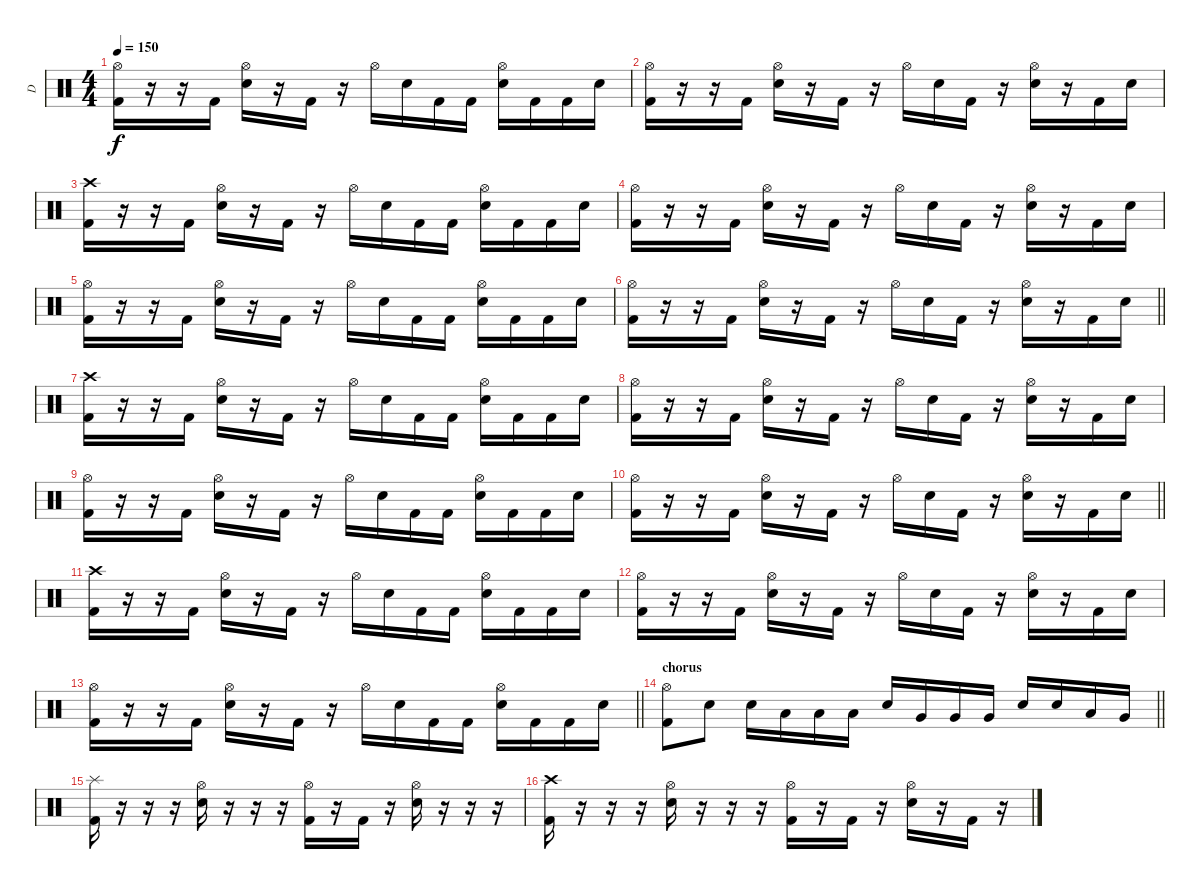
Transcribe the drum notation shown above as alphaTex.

\track ("D" "D") {instrument percussion}
\staff {score}
\articulation defaults
\ts (4 4)
\tempo 150
\clef neutral
\ks c
("Hi-Hat (open)" "Kick (hit) 2").16{dy f} r.16 r.16 "Kick (hit) 2".16 ("Hi-Hat (open)" "Electric Snare (hit)").16 r.16 "Kick (hit) 2".16 r.16 "Hi-Hat (open)".16 "Electric Snare (hit)".16 "Kick (hit) 2".16 "Kick (hit) 2".16 ("Hi-Hat (open)" "Electric Snare (hit)").16 "Kick (hit) 2".16 "Kick (hit) 2".16 "Electric Snare (hit)".16 |
("Hi-Hat (open)" "Kick (hit) 2").16 r.16 r.16 "Kick (hit) 2".16 ("Hi-Hat (open)" "Electric Snare (hit)").16 r.16 "Kick (hit) 2".16 r.16 "Hi-Hat (open)".16 "Electric Snare (hit)".16 "Kick (hit) 2".16 r.16 ("Hi-Hat (open)" "Electric Snare (hit)").16 r.16 "Kick (hit) 2".16 "Electric Snare (hit)".16 |
("Crash high (hit)" "Kick (hit) 2").16 r.16 r.16 "Kick (hit) 2".16 ("Hi-Hat (open)" "Electric Snare (hit)").16 r.16 "Kick (hit) 2".16 r.16 "Hi-Hat (open)".16 "Electric Snare (hit)".16 "Kick (hit) 2".16 "Kick (hit) 2".16 ("Hi-Hat (open)" "Electric Snare (hit)").16 "Kick (hit) 2".16 "Kick (hit) 2".16 "Electric Snare (hit)".16 |
("Hi-Hat (open)" "Kick (hit) 2").16 r.16 r.16 "Kick (hit) 2".16 ("Hi-Hat (open)" "Electric Snare (hit)").16 r.16 "Kick (hit) 2".16 r.16 "Hi-Hat (open)".16 "Electric Snare (hit)".16 "Kick (hit) 2".16 r.16 ("Hi-Hat (open)" "Electric Snare (hit)").16 r.16 "Kick (hit) 2".16 "Electric Snare (hit)".16 |
("Hi-Hat (open)" "Kick (hit) 2").16 r.16 r.16 "Kick (hit) 2".16 ("Hi-Hat (open)" "Electric Snare (hit)").16 r.16 "Kick (hit) 2".16 r.16 "Hi-Hat (open)".16 "Electric Snare (hit)".16 "Kick (hit) 2".16 "Kick (hit) 2".16 ("Hi-Hat (open)" "Electric Snare (hit)").16 "Kick (hit) 2".16 "Kick (hit) 2".16 "Electric Snare (hit)".16 |
\barLineRight lightlight
("Hi-Hat (open)" "Kick (hit) 2").16 r.16 r.16 "Kick (hit) 2".16 ("Hi-Hat (open)" "Electric Snare (hit)").16 r.16 "Kick (hit) 2".16 r.16 "Hi-Hat (open)".16 "Electric Snare (hit)".16 "Kick (hit) 2".16 r.16 ("Hi-Hat (open)" "Electric Snare (hit)").16 r.16 "Kick (hit) 2".16 "Electric Snare (hit)".16 |
("Crash high (hit)" "Kick (hit) 2").16 r.16 r.16 "Kick (hit) 2".16 ("Hi-Hat (open)" "Electric Snare (hit)").16 r.16 "Kick (hit) 2".16 r.16 "Hi-Hat (open)".16 "Electric Snare (hit)".16 "Kick (hit) 2".16 "Kick (hit) 2".16 ("Hi-Hat (open)" "Electric Snare (hit)").16 "Kick (hit) 2".16 "Kick (hit) 2".16 "Electric Snare (hit)".16 |
("Hi-Hat (open)" "Kick (hit) 2").16 r.16 r.16 "Kick (hit) 2".16 ("Hi-Hat (open)" "Electric Snare (hit)").16 r.16 "Kick (hit) 2".16 r.16 "Hi-Hat (open)".16 "Electric Snare (hit)".16 "Kick (hit) 2".16 r.16 ("Hi-Hat (open)" "Electric Snare (hit)").16 r.16 "Kick (hit) 2".16 "Electric Snare (hit)".16 |
("Hi-Hat (open)" "Kick (hit) 2").16 r.16 r.16 "Kick (hit) 2".16 ("Hi-Hat (open)" "Electric Snare (hit)").16 r.16 "Kick (hit) 2".16 r.16 "Hi-Hat (open)".16 "Electric Snare (hit)".16 "Kick (hit) 2".16 "Kick (hit) 2".16 ("Hi-Hat (open)" "Electric Snare (hit)").16 "Kick (hit) 2".16 "Kick (hit) 2".16 "Electric Snare (hit)".16 |
\barLineRight lightlight
("Hi-Hat (open)" "Kick (hit) 2").16 r.16 r.16 "Kick (hit) 2".16 ("Hi-Hat (open)" "Electric Snare (hit)").16 r.16 "Kick (hit) 2".16 r.16 "Hi-Hat (open)".16 "Electric Snare (hit)".16 "Kick (hit) 2".16 r.16 ("Hi-Hat (open)" "Electric Snare (hit)").16 r.16 "Kick (hit) 2".16 "Electric Snare (hit)".16 |
("Crash high (hit)" "Kick (hit) 2").16 r.16 r.16 "Kick (hit) 2".16 ("Hi-Hat (open)" "Electric Snare (hit)").16 r.16 "Kick (hit) 2".16 r.16 "Hi-Hat (open)".16 "Electric Snare (hit)".16 "Kick (hit) 2".16 "Kick (hit) 2".16 ("Hi-Hat (open)" "Electric Snare (hit)").16 "Kick (hit) 2".16 "Kick (hit) 2".16 "Electric Snare (hit)".16 |
("Hi-Hat (open)" "Kick (hit) 2").16 r.16 r.16 "Kick (hit) 2".16 ("Hi-Hat (open)" "Electric Snare (hit)").16 r.16 "Kick (hit) 2".16 r.16 "Hi-Hat (open)".16 "Electric Snare (hit)".16 "Kick (hit) 2".16 r.16 ("Hi-Hat (open)" "Electric Snare (hit)").16 r.16 "Kick (hit) 2".16 "Electric Snare (hit)".16 |
\barLineRight lightlight
("Hi-Hat (open)" "Kick (hit) 2").16 r.16 r.16 "Kick (hit) 2".16 ("Hi-Hat (open)" "Electric Snare (hit)").16 r.16 "Kick (hit) 2".16 r.16 "Hi-Hat (open)".16 "Electric Snare (hit)".16 "Kick (hit) 2".16 "Kick (hit) 2".16 ("Hi-Hat (open)" "Electric Snare (hit)").16 "Kick (hit) 2".16 "Kick (hit) 2".16 "Electric Snare (hit)".16 |
\section ("" "chorus")
\barLineRight lightlight
("Hi-Hat (open)" "Kick (hit) 2").8 "Electric Snare (hit)".8 "Electric Snare (hit)".16 "Low Tom (hit)".16 "Low Tom (hit)".16 "Low Tom (hit)".16 "Electric Snare (hit)".16 "Very Low Tom (hit)".16 "Very Low Tom (hit)".16 "Very Low Tom (hit)".16 "Electric Snare (hit)".16 "Electric Snare (hit)".16 "Low Tom (hit)".16 "Very Low Tom (hit)".16 |
("Splash (hit)" "Kick (hit) 2").16 r.16 r.16 r.16 ("Hi-Hat (open)" "Electric Snare (hit)").16 r.16 r.16 r.16 ("Hi-Hat (open)" "Kick (hit) 2").16 r.16 "Kick (hit) 2".16 r.16 ("Hi-Hat (open)" "Electric Snare (hit)").16 r.16 r.16 r.16 |
("Crash high (hit)" "Kick (hit) 2").16 r.16 r.16 r.16 ("Hi-Hat (open)" "Electric Snare (hit)").16 r.16 r.16 r.16 ("Hi-Hat (open)" "Kick (hit) 2").16 r.16 "Kick (hit) 2".16 r.16 ("Hi-Hat (open)" "Electric Snare (hit)").16 r.16 "Kick (hit) 2".16 r.16
